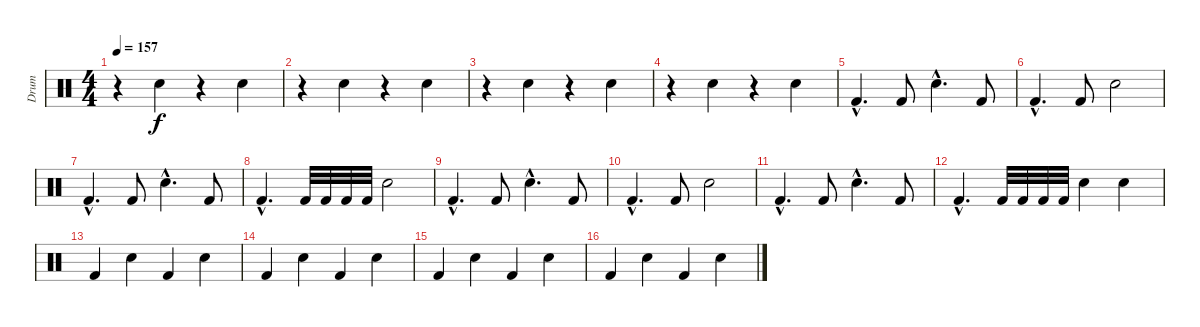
\track ("Drum" "Drum") {instrument percussion}
\staff {score}
\articulation defaults
\ts (4 4)
\tempo 157
\clef neutral
\ks c
r.4{dy f} "Electric Snare (hit)".4 r.4 "Electric Snare (hit)".4 |
r.4 "Electric Snare (hit)".4 r.4 "Electric Snare (hit)".4 |
r.4 "Electric Snare (hit)".4 r.4 "Electric Snare (hit)".4 |
r.4 "Electric Snare (hit)".4 r.4 "Electric Snare (hit)".4 |
"Kick (hit) 2"{hac}.4{d} "Kick (hit) 2".8 "Electric Snare (hit)"{hac}.4{d} "Kick (hit) 2".8 |
"Kick (hit) 2"{hac}.4{d} "Kick (hit) 2".8 "Electric Snare (hit)".2 |
"Kick (hit) 2"{hac}.4{d} "Kick (hit) 2".8 "Electric Snare (hit)"{hac}.4{d} "Kick (hit) 2".8 |
"Kick (hit) 2"{hac}.4{d} "Kick (hit) 2".32 "Kick (hit) 2".32 "Kick (hit) 2".32 "Kick (hit) 2".32 "Electric Snare (hit)".2 |
"Kick (hit) 2"{hac}.4{d} "Kick (hit) 2".8 "Electric Snare (hit)"{hac}.4{d} "Kick (hit) 2".8 |
"Kick (hit) 2"{hac}.4{d} "Kick (hit) 2".8 "Electric Snare (hit)".2 |
"Kick (hit) 2"{hac}.4{d} "Kick (hit) 2".8 "Electric Snare (hit)"{hac}.4{d} "Kick (hit) 2".8 |
"Kick (hit) 2"{hac}.4{d} "Kick (hit) 2".32 "Kick (hit) 2".32 "Kick (hit) 2".32 "Kick (hit) 2".32 "Electric Snare (hit)".4 "Electric Snare (hit)".4 |
"Kick (hit) 2".4 "Electric Snare (hit)".4 "Kick (hit) 2".4 "Electric Snare (hit)".4 |
"Kick (hit) 2".4 "Electric Snare (hit)".4 "Kick (hit) 2".4 "Electric Snare (hit)".4 |
"Kick (hit) 2".4 "Electric Snare (hit)".4 "Kick (hit) 2".4 "Electric Snare (hit)".4 |
"Kick (hit) 2".4 "Electric Snare (hit)".4 "Kick (hit) 2".4 "Electric Snare (hit)".4
